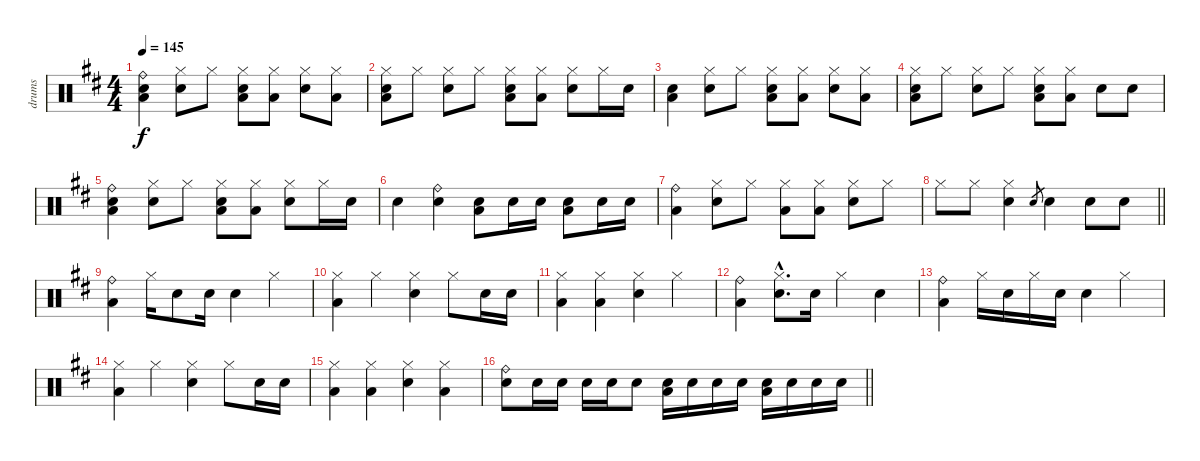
\track ("drums" "drums") {instrument percussion}
\staff {score}
\articulation defaults
\ts (4 4)
\tempo 145
\clef neutral
\ks d
("Ride (bell)" "Electric Snare (hit)" "Low Floor Tom (hit)").4{dy f} ("Hi-Hat (closed)" "Electric Snare (hit)").8 "Hi-Hat (closed)".8 ("Hi-Hat (closed)" "Electric Snare (hit)" "Low Floor Tom (hit)").8 ("Hi-Hat (closed)" "Low Floor Tom (hit)").8 ("Hi-Hat (closed)" "Electric Snare (hit)").8 ("Hi-Hat (closed)" "Low Floor Tom (hit)").8 |
("Hi-Hat (closed)" "Electric Snare (hit)" "Low Floor Tom (hit)").8 "Hi-Hat (closed)".8 ("Hi-Hat (closed)" "Electric Snare (hit)").8 "Hi-Hat (closed)".8 ("Hi-Hat (closed)" "Electric Snare (hit)" "Low Floor Tom (hit)").8 ("Hi-Hat (closed)" "Low Floor Tom (hit)").8 ("Hi-Hat (closed)" "Electric Snare (hit)").8 "Hi-Hat (closed)".16 "Electric Snare (hit)".16 |
("Electric Snare (hit)" "Low Floor Tom (hit)").4 ("Hi-Hat (closed)" "Electric Snare (hit)").8 "Hi-Hat (closed)".8 ("Hi-Hat (closed)" "Electric Snare (hit)" "Low Floor Tom (hit)").8 ("Hi-Hat (closed)" "Low Floor Tom (hit)").8 ("Hi-Hat (closed)" "Electric Snare (hit)").8 ("Hi-Hat (closed)" "Low Floor Tom (hit)").8 |
("Hi-Hat (closed)" "Electric Snare (hit)" "Low Floor Tom (hit)").8 "Hi-Hat (closed)".8 ("Hi-Hat (closed)" "Electric Snare (hit)").8 "Hi-Hat (closed)".8 ("Hi-Hat (closed)" "Electric Snare (hit)" "Low Floor Tom (hit)").8 ("Hi-Hat (closed)" "Low Floor Tom (hit)").8 "Electric Snare (hit)".8 "Electric Snare (hit)".8 |
("Ride (bell)" "Electric Snare (hit)" "Low Floor Tom (hit)").4 ("Hi-Hat (closed)" "Electric Snare (hit)").8 "Hi-Hat (closed)".8 ("Hi-Hat (closed)" "Electric Snare (hit)" "Low Floor Tom (hit)").8 ("Hi-Hat (closed)" "Low Floor Tom (hit)").8 ("Hi-Hat (closed)" "Electric Snare (hit)").8 "Hi-Hat (closed)".16 "Electric Snare (hit)".16 |
"Electric Snare (hit)".4 ("Ride (bell)" "Electric Snare (hit)").4 ("Electric Snare (hit)" "Low Floor Tom (hit)").8 "Electric Snare (hit)".16 "Electric Snare (hit)".16 ("Electric Snare (hit)" "Low Floor Tom (hit)").8 "Electric Snare (hit)".16 "Electric Snare (hit)".16 |
("Ride (bell)" "Low Floor Tom (hit)").4 ("Hi-Hat (closed)" "Electric Snare (hit)").8 "Hi-Hat (closed)".8 ("Hi-Hat (closed)" "Low Floor Tom (hit)").8 ("Hi-Hat (closed)" "Low Floor Tom (hit)").8 ("Hi-Hat (closed)" "Electric Snare (hit)").8 "Hi-Hat (closed)".8 |
\barLineRight lightlight "Hi-Hat (closed)".8 "Hi-Hat (closed)".8
("Hi-Hat (closed)" "Electric Snare (hit)").4 "Electric Snare (hit)".8{gr} "Electric Snare (hit)".4 "Electric Snare (hit)".8 "Electric Snare (hit)".8 |
("Ride (bell)" "Low Floor Tom (hit)").4 "Hi-Hat (closed)".16 "Electric Snare (hit)".8 "Electric Snare (hit)".16 "Electric Snare (hit)".4 "Hi-Hat (closed)".4 |
("Hi-Hat (closed)" "Low Floor Tom (hit)").4 "Hi-Hat (closed)".4 ("Hi-Hat (closed)" "Electric Snare (hit)").4 "Hi-Hat (closed)".8 "Electric Snare (hit)".16 "Electric Snare (hit)".16 |
("Hi-Hat (closed)" "Low Floor Tom (hit)").4 ("Hi-Hat (closed)" "Low Floor Tom (hit)").4 ("Hi-Hat (closed)" "Electric Snare (hit)").4 "Hi-Hat (closed)".4 |
("Ride (bell)" "Low Floor Tom (hit)").4 ("Hi-Hat (closed)"{hac} "Electric Snare (hit)"{hac}).8{d} "Electric Snare (hit)".16 "Hi-Hat (closed)".4 "Electric Snare (hit)".4 |
("Ride (bell)" "Low Floor Tom (hit)").4 "Hi-Hat (closed)".16 "Electric Snare (hit)".16 "Hi-Hat (closed)".16 "Electric Snare (hit)".16 "Electric Snare (hit)".4 "Hi-Hat (closed)".4 |
("Hi-Hat (closed)" "Low Floor Tom (hit)").4 "Hi-Hat (closed)".4 ("Hi-Hat (closed)" "Electric Snare (hit)").4 "Hi-Hat (closed)".8 "Electric Snare (hit)".16 "Electric Snare (hit)".16 |
("Hi-Hat (closed)" "Low Floor Tom (hit)").4 ("Hi-Hat (closed)" "Low Floor Tom (hit)").4 ("Hi-Hat (closed)" "Electric Snare (hit)").4 ("Hi-Hat (closed)" "Low Floor Tom (hit)").4 |
\barLineRight lightlight
("Ride (bell)" "Electric Snare (hit)").8 "Electric Snare (hit)".16 "Electric Snare (hit)".16 "Electric Snare (hit)".16 "Electric Snare (hit)".16 "Electric Snare (hit)".8 ("Electric Snare (hit)" "Low Floor Tom (hit)").16 "Electric Snare (hit)".16 "Electric Snare (hit)".16 "Electric Snare (hit)".16 ("Electric Snare (hit)" "Low Floor Tom (hit)").16 "Electric Snare (hit)".16 "Electric Snare (hit)".16 "Electric Snare (hit)".16
